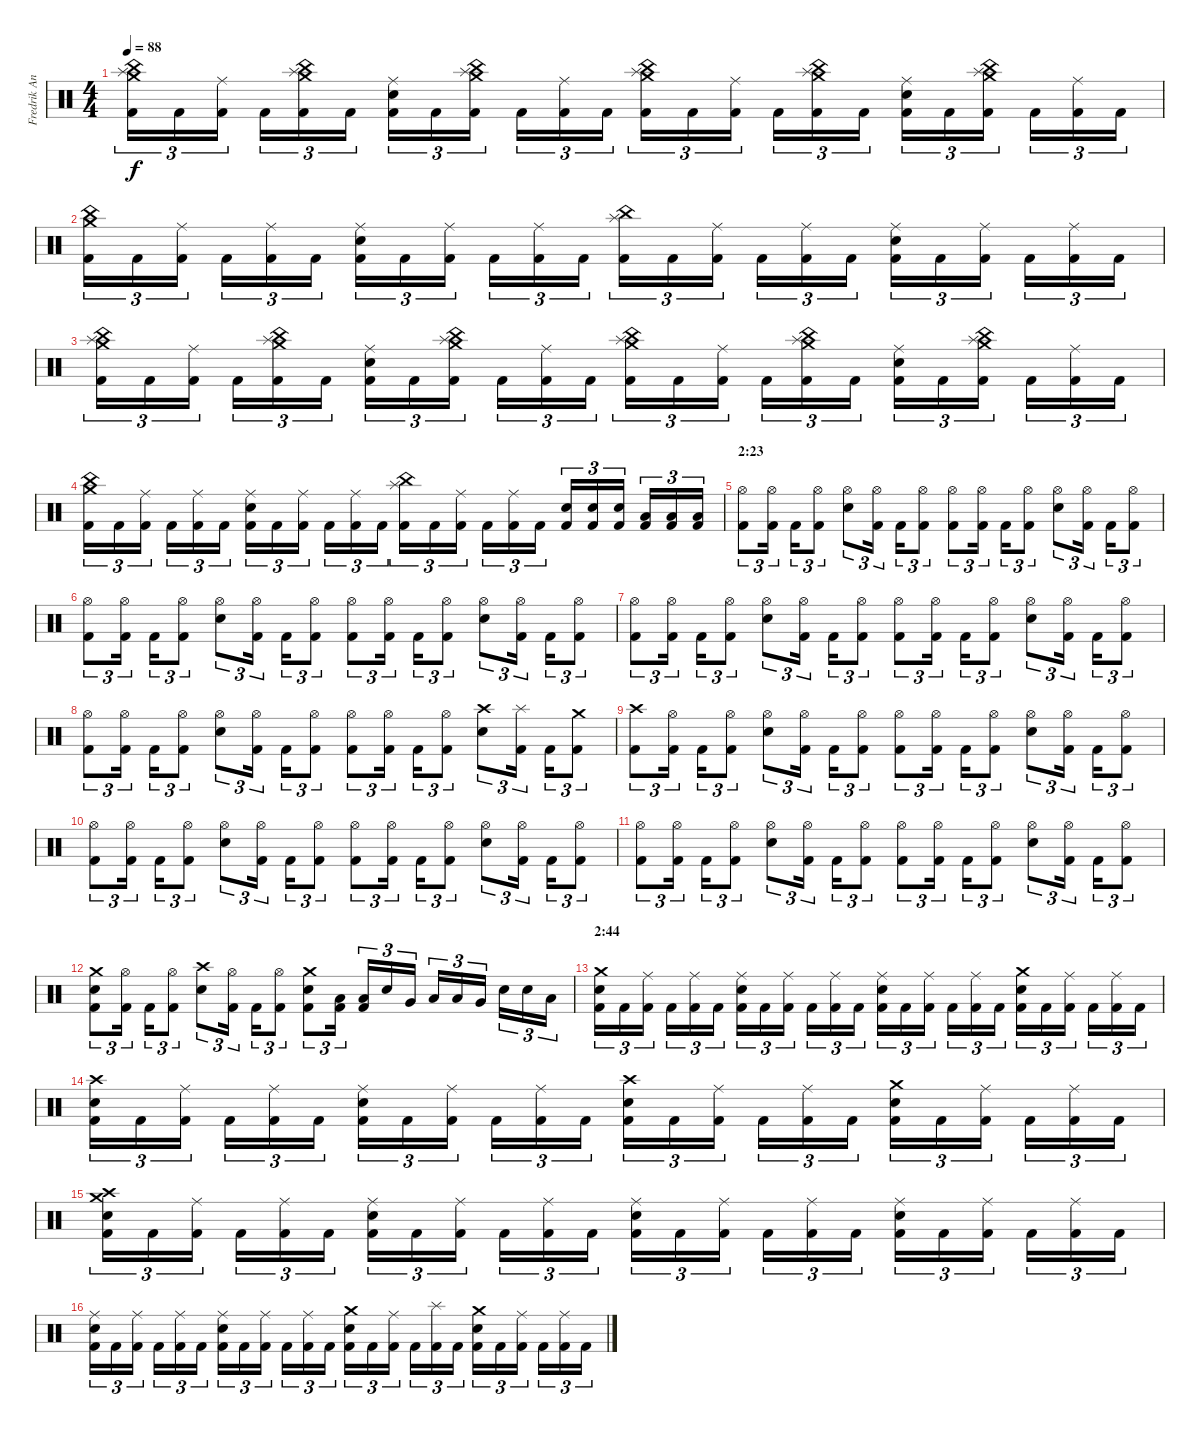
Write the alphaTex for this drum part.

\track ("Fredrik Andersson" "Fredrik An") {instrument percussion}
\staff {score}
\articulation defaults
\ts (4 4)
\tempo 88
\clef neutral
\ks c
("China (hit)" "Splash (hit)" "Crash medium (hit)" "Kick (hit) 2").16{tu (3 2) dy f} "Kick (hit) 2".16{tu (3 2)} ("Ride (middle)" "Kick (hit) 2").16{tu (3 2)} "Kick (hit) 2".16{tu (3 2)} ("China (hit)" "Splash (hit)" "Crash medium (hit)" "Kick (hit) 2").16{tu (3 2)} "Kick (hit) 2".16{tu (3 2)} ("Ride (middle)" "Electric Snare (hit)" "Kick (hit) 2").16{tu (3 2)} "Kick (hit) 2".16{tu (3 2)} ("China (hit)" "Splash (hit)" "Crash medium (hit)" "Kick (hit) 2").16{tu (3 2)} "Kick (hit) 2".16{tu (3 2)} ("Ride (middle)" "Kick (hit) 2").16{tu (3 2)} "Kick (hit) 2".16{tu (3 2)} ("China (hit)" "Splash (hit)" "Crash medium (hit)" "Kick (hit) 2").16{tu (3 2)} "Kick (hit) 2".16{tu (3 2)} ("Ride (middle)" "Kick (hit) 2").16{tu (3 2)} "Kick (hit) 2".16{tu (3 2)} ("China (hit)" "Splash (hit)" "Crash medium (hit)" "Kick (hit) 2").16{tu (3 2)} "Kick (hit) 2".16{tu (3 2)} ("Ride (middle)" "Electric Snare (hit)" "Kick (hit) 2").16{tu (3 2)} "Kick (hit) 2".16{tu (3 2)} ("China (hit)" "Splash (hit)" "Crash medium (hit)" "Kick (hit) 2").16{tu (3 2)} "Kick (hit) 2".16{tu (3 2)} ("Ride (middle)" "Kick (hit) 2").16{tu (3 2)} "Kick (hit) 2".16{tu (3 2)} |
("China (hit)" "Crash medium (hit)" "Kick (hit) 2").16{tu (3 2)} "Kick (hit) 2".16{tu (3 2)} ("Ride (middle)" "Kick (hit) 2").16{tu (3 2)} "Kick (hit) 2".16{tu (3 2)} ("Ride (middle)" "Kick (hit) 2").16{tu (3 2)} "Kick (hit) 2".16{tu (3 2)} ("Ride (middle)" "Electric Snare (hit)" "Kick (hit) 2").16{tu (3 2)} "Kick (hit) 2".16{tu (3 2)} ("Ride (middle)" "Kick (hit) 2").16{tu (3 2)} "Kick (hit) 2".16{tu (3 2)} ("Ride (middle)" "Kick (hit) 2").16{tu (3 2)} "Kick (hit) 2".16{tu (3 2)} ("China (hit)" "Splash (hit)" "Kick (hit) 2").16{tu (3 2)} "Kick (hit) 2".16{tu (3 2)} ("Ride (middle)" "Kick (hit) 2").16{tu (3 2)} "Kick (hit) 2".16{tu (3 2)} ("Ride (middle)" "Kick (hit) 2").16{tu (3 2)} "Kick (hit) 2".16{tu (3 2)} ("Ride (middle)" "Electric Snare (hit)" "Kick (hit) 2").16{tu (3 2)} "Kick (hit) 2".16{tu (3 2)} ("Ride (middle)" "Kick (hit) 2").16{tu (3 2)} "Kick (hit) 2".16{tu (3 2)} ("Ride (middle)" "Kick (hit) 2").16{tu (3 2)} "Kick (hit) 2".16{tu (3 2)} |
("China (hit)" "Splash (hit)" "Crash medium (hit)" "Kick (hit) 2").16{tu (3 2)} "Kick (hit) 2".16{tu (3 2)} ("Ride (middle)" "Kick (hit) 2").16{tu (3 2)} "Kick (hit) 2".16{tu (3 2)} ("China (hit)" "Splash (hit)" "Crash medium (hit)" "Kick (hit) 2").16{tu (3 2)} "Kick (hit) 2".16{tu (3 2)} ("Ride (middle)" "Electric Snare (hit)" "Kick (hit) 2").16{tu (3 2)} "Kick (hit) 2".16{tu (3 2)} ("China (hit)" "Splash (hit)" "Crash medium (hit)" "Kick (hit) 2").16{tu (3 2)} "Kick (hit) 2".16{tu (3 2)} ("Ride (middle)" "Kick (hit) 2").16{tu (3 2)} "Kick (hit) 2".16{tu (3 2)} ("China (hit)" "Splash (hit)" "Crash medium (hit)" "Kick (hit) 2").16{tu (3 2)} "Kick (hit) 2".16{tu (3 2)} ("Ride (middle)" "Kick (hit) 2").16{tu (3 2)} "Kick (hit) 2".16{tu (3 2)} ("China (hit)" "Splash (hit)" "Crash medium (hit)" "Kick (hit) 2").16{tu (3 2)} "Kick (hit) 2".16{tu (3 2)} ("Ride (middle)" "Electric Snare (hit)" "Kick (hit) 2").16{tu (3 2)} "Kick (hit) 2".16{tu (3 2)} ("China (hit)" "Splash (hit)" "Crash medium (hit)" "Kick (hit) 2").16{tu (3 2)} "Kick (hit) 2".16{tu (3 2)} ("Ride (middle)" "Kick (hit) 2").16{tu (3 2)} "Kick (hit) 2".16{tu (3 2)} |
("China (hit)" "Crash medium (hit)" "Kick (hit) 2").16{tu (3 2)} "Kick (hit) 2".16{tu (3 2)} ("Ride (middle)" "Kick (hit) 2").16{tu (3 2)} "Kick (hit) 2".16{tu (3 2)} ("Ride (middle)" "Kick (hit) 2").16{tu (3 2)} "Kick (hit) 2".16{tu (3 2)} ("Ride (middle)" "Electric Snare (hit)" "Kick (hit) 2").16{tu (3 2)} "Kick (hit) 2".16{tu (3 2)} ("Ride (middle)" "Kick (hit) 2").16{tu (3 2)} "Kick (hit) 2".16{tu (3 2)} ("Ride (middle)" "Kick (hit) 2").16{tu (3 2)} "Kick (hit) 2".16{tu (3 2)} ("China (hit)" "Splash (hit)" "Kick (hit) 2").16{tu (3 2)} "Kick (hit) 2".16{tu (3 2)} ("Ride (middle)" "Kick (hit) 2").16{tu (3 2)} "Kick (hit) 2".16{tu (3 2)} ("Ride (middle)" "Kick (hit) 2").16{tu (3 2)} "Kick (hit) 2".16{tu (3 2)} ("Electric Snare (hit)" "Kick (hit) 2").16{tu (3 2)} ("Electric Snare (hit)" "Kick (hit) 2").16{tu (3 2)} ("Electric Snare (hit)" "Kick (hit) 2").16{tu (3 2)} ("Low Tom (hit)" "Kick (hit) 2").16{tu (3 2)} ("Low Tom (hit)" "Kick (hit) 2").16{tu (3 2)} ("Low Tom (hit)" "Kick (hit) 2").16{tu (3 2)} |
\section ("" "2:23")
("Hi-Hat (open)" "Kick (hit) 2").8{tu (3 2)} ("Hi-Hat (open)" "Kick (hit) 2").16{tu (3 2)} "Kick (hit) 2".16{tu (3 2)} ("Hi-Hat (open)" "Kick (hit) 2").8{tu (3 2)} ("Hi-Hat (open)" "Electric Snare (hit)").8{tu (3 2)} ("Hi-Hat (open)" "Kick (hit) 2").16{tu (3 2)} "Kick (hit) 2".16{tu (3 2)} ("Hi-Hat (open)" "Kick (hit) 2").8{tu (3 2)} ("Hi-Hat (open)" "Kick (hit) 2").8{tu (3 2)} ("Hi-Hat (open)" "Kick (hit) 2").16{tu (3 2)} "Kick (hit) 2".16{tu (3 2)} ("Hi-Hat (open)" "Kick (hit) 2").8{tu (3 2)} ("Hi-Hat (open)" "Electric Snare (hit)").8{tu (3 2)} ("Hi-Hat (open)" "Kick (hit) 2").16{tu (3 2)} "Kick (hit) 2".16{tu (3 2)} ("Hi-Hat (open)" "Kick (hit) 2").8{tu (3 2)} |
("Hi-Hat (open)" "Kick (hit) 2").8{tu (3 2)} ("Hi-Hat (open)" "Kick (hit) 2").16{tu (3 2)} "Kick (hit) 2".16{tu (3 2)} ("Hi-Hat (open)" "Kick (hit) 2").8{tu (3 2)} ("Hi-Hat (open)" "Electric Snare (hit)").8{tu (3 2)} ("Hi-Hat (open)" "Kick (hit) 2").16{tu (3 2)} "Kick (hit) 2".16{tu (3 2)} ("Hi-Hat (open)" "Kick (hit) 2").8{tu (3 2)} ("Hi-Hat (open)" "Kick (hit) 2").8{tu (3 2)} ("Hi-Hat (open)" "Kick (hit) 2").16{tu (3 2)} "Kick (hit) 2".16{tu (3 2)} ("Hi-Hat (open)" "Kick (hit) 2").8{tu (3 2)} ("Hi-Hat (open)" "Electric Snare (hit)").8{tu (3 2)} ("Hi-Hat (open)" "Kick (hit) 2").16{tu (3 2)} "Kick (hit) 2".16{tu (3 2)} ("Hi-Hat (open)" "Kick (hit) 2").8{tu (3 2)} |
("Hi-Hat (open)" "Kick (hit) 2").8{tu (3 2)} ("Hi-Hat (open)" "Kick (hit) 2").16{tu (3 2)} "Kick (hit) 2".16{tu (3 2)} ("Hi-Hat (open)" "Kick (hit) 2").8{tu (3 2)} ("Hi-Hat (open)" "Electric Snare (hit)").8{tu (3 2)} ("Hi-Hat (open)" "Kick (hit) 2").16{tu (3 2)} "Kick (hit) 2".16{tu (3 2)} ("Hi-Hat (open)" "Kick (hit) 2").8{tu (3 2)} ("Hi-Hat (open)" "Kick (hit) 2").8{tu (3 2)} ("Hi-Hat (open)" "Kick (hit) 2").16{tu (3 2)} "Kick (hit) 2".16{tu (3 2)} ("Hi-Hat (open)" "Kick (hit) 2").8{tu (3 2)} ("Hi-Hat (open)" "Electric Snare (hit)").8{tu (3 2)} ("Hi-Hat (open)" "Kick (hit) 2").16{tu (3 2)} "Kick (hit) 2".16{tu (3 2)} ("Hi-Hat (open)" "Kick (hit) 2").8{tu (3 2)} |
("Hi-Hat (open)" "Kick (hit) 2").8{tu (3 2)} ("Hi-Hat (open)" "Kick (hit) 2").16{tu (3 2)} "Kick (hit) 2".16{tu (3 2)} ("Hi-Hat (open)" "Kick (hit) 2").8{tu (3 2)} ("Hi-Hat (open)" "Electric Snare (hit)").8{tu (3 2)} ("Hi-Hat (open)" "Kick (hit) 2").16{tu (3 2)} "Kick (hit) 2".16{tu (3 2)} ("Hi-Hat (open)" "Kick (hit) 2").8{tu (3 2)} ("Hi-Hat (open)" "Kick (hit) 2").8{tu (3 2)} ("Hi-Hat (open)" "Kick (hit) 2").16{tu (3 2)} "Kick (hit) 2".16{tu (3 2)} ("Hi-Hat (open)" "Kick (hit) 2").8{tu (3 2)} ("Crash high (hit)" "Electric Snare (hit)").8{tu (3 2)} ("Splash (hit)" "Kick (hit) 2").16{tu (3 2)} "Kick (hit) 2".16{tu (3 2)} ("Crash medium (hit)" "Kick (hit) 2").8{tu (3 2)} |
("Crash high (hit)" "Kick (hit) 2").8{tu (3 2)} ("Hi-Hat (open)" "Kick (hit) 2").16{tu (3 2)} "Kick (hit) 2".16{tu (3 2)} ("Hi-Hat (open)" "Kick (hit) 2").8{tu (3 2)} ("Hi-Hat (open)" "Electric Snare (hit)").8{tu (3 2)} ("Hi-Hat (open)" "Kick (hit) 2").16{tu (3 2)} "Kick (hit) 2".16{tu (3 2)} ("Hi-Hat (open)" "Kick (hit) 2").8{tu (3 2)} ("Hi-Hat (open)" "Kick (hit) 2").8{tu (3 2)} ("Hi-Hat (open)" "Kick (hit) 2").16{tu (3 2)} "Kick (hit) 2".16{tu (3 2)} ("Hi-Hat (open)" "Kick (hit) 2").8{tu (3 2)} ("Hi-Hat (open)" "Electric Snare (hit)").8{tu (3 2)} ("Hi-Hat (open)" "Kick (hit) 2").16{tu (3 2)} "Kick (hit) 2".16{tu (3 2)} ("Hi-Hat (open)" "Kick (hit) 2").8{tu (3 2)} |
("Hi-Hat (open)" "Kick (hit) 2").8{tu (3 2)} ("Hi-Hat (open)" "Kick (hit) 2").16{tu (3 2)} "Kick (hit) 2".16{tu (3 2)} ("Hi-Hat (open)" "Kick (hit) 2").8{tu (3 2)} ("Hi-Hat (open)" "Electric Snare (hit)").8{tu (3 2)} ("Hi-Hat (open)" "Kick (hit) 2").16{tu (3 2)} "Kick (hit) 2".16{tu (3 2)} ("Hi-Hat (open)" "Kick (hit) 2").8{tu (3 2)} ("Hi-Hat (open)" "Kick (hit) 2").8{tu (3 2)} ("Hi-Hat (open)" "Kick (hit) 2").16{tu (3 2)} "Kick (hit) 2".16{tu (3 2)} ("Hi-Hat (open)" "Kick (hit) 2").8{tu (3 2)} ("Hi-Hat (open)" "Electric Snare (hit)").8{tu (3 2)} ("Hi-Hat (open)" "Kick (hit) 2").16{tu (3 2)} "Kick (hit) 2".16{tu (3 2)} ("Hi-Hat (open)" "Kick (hit) 2").8{tu (3 2)} |
("Hi-Hat (open)" "Kick (hit) 2").8{tu (3 2)} ("Hi-Hat (open)" "Kick (hit) 2").16{tu (3 2)} "Kick (hit) 2".16{tu (3 2)} ("Hi-Hat (open)" "Kick (hit) 2").8{tu (3 2)} ("Hi-Hat (open)" "Electric Snare (hit)").8{tu (3 2)} ("Hi-Hat (open)" "Kick (hit) 2").16{tu (3 2)} "Kick (hit) 2".16{tu (3 2)} ("Hi-Hat (open)" "Kick (hit) 2").8{tu (3 2)} ("Hi-Hat (open)" "Kick (hit) 2").8{tu (3 2)} ("Hi-Hat (open)" "Kick (hit) 2").16{tu (3 2)} "Kick (hit) 2".16{tu (3 2)} ("Hi-Hat (open)" "Kick (hit) 2").8{tu (3 2)} ("Hi-Hat (open)" "Electric Snare (hit)").8{tu (3 2)} ("Hi-Hat (open)" "Kick (hit) 2").16{tu (3 2)} "Kick (hit) 2".16{tu (3 2)} ("Hi-Hat (open)" "Kick (hit) 2").8{tu (3 2)} |
("Crash medium (hit)" "Electric Snare (hit)" "Kick (hit) 2").8{tu (3 2)} ("Hi-Hat (open)" "Kick (hit) 2").16{tu (3 2)} "Kick (hit) 2".16{tu (3 2)} ("Hi-Hat (open)" "Kick (hit) 2").8{tu (3 2)} ("Crash high (hit)" "Electric Snare (hit)").8{tu (3 2)} ("Hi-Hat (open)" "Kick (hit) 2").16{tu (3 2)} "Kick (hit) 2".16{tu (3 2)} ("Hi-Hat (open)" "Kick (hit) 2").8{tu (3 2)} ("Crash medium (hit)" "Electric Snare (hit)" "Kick (hit) 2").8{tu (3 2)} ("Low Floor Tom (hit)" "Kick (hit) 2").16{tu (3 2)} ("Low Floor Tom (hit)" "Kick (hit) 2").16{tu (3 2)} "Electric Snare (hit)".16{tu (3 2)} "Very Low Tom (hit)".16{tu (3 2)} "Low Tom (hit)".16{tu (3 2)} "Low Tom (hit)".16{tu (3 2)} "Very Low Tom (hit)".16{tu (3 2)} "Electric Snare (hit)".16{tu (3 2)} "Electric Snare (hit)".16{tu (3 2)} "Low Floor Tom (hit)".16{tu (3 2)} |
\section ("" "2:44")
("Crash medium (hit)" "Electric Snare (hit)" "Kick (hit) 2").16{tu (3 2)} "Kick (hit) 2".16{tu (3 2)} ("Ride (middle)" "Kick (hit) 2").16{tu (3 2)} "Kick (hit) 2".16{tu (3 2)} ("Ride (middle)" "Kick (hit) 2").16{tu (3 2)} "Kick (hit) 2".16{tu (3 2)} ("Ride (middle)" "Electric Snare (hit)" "Kick (hit) 2").16{tu (3 2)} "Kick (hit) 2".16{tu (3 2)} ("Ride (middle)" "Kick (hit) 2").16{tu (3 2)} "Kick (hit) 2".16{tu (3 2)} ("Ride (middle)" "Kick (hit) 2").16{tu (3 2)} "Kick (hit) 2".16{tu (3 2)} ("Ride (middle)" "Electric Snare (hit)" "Kick (hit) 2").16{tu (3 2)} "Kick (hit) 2".16{tu (3 2)} ("Ride (middle)" "Kick (hit) 2").16{tu (3 2)} "Kick (hit) 2".16{tu (3 2)} ("Ride (middle)" "Kick (hit) 2").16{tu (3 2)} "Kick (hit) 2".16{tu (3 2)} ("Crash medium (hit)" "Electric Snare (hit)" "Kick (hit) 2").16{tu (3 2)} "Kick (hit) 2".16{tu (3 2)} ("Ride (middle)" "Kick (hit) 2").16{tu (3 2)} "Kick (hit) 2".16{tu (3 2)} ("Ride (middle)" "Kick (hit) 2").16{tu (3 2)} "Kick (hit) 2".16{tu (3 2)} |
("Crash high (hit)" "Electric Snare (hit)" "Kick (hit) 2").16{tu (3 2)} "Kick (hit) 2".16{tu (3 2)} ("Ride (middle)" "Kick (hit) 2").16{tu (3 2)} "Kick (hit) 2".16{tu (3 2)} ("Ride (middle)" "Kick (hit) 2").16{tu (3 2)} "Kick (hit) 2".16{tu (3 2)} ("Ride (middle)" "Electric Snare (hit)" "Kick (hit) 2").16{tu (3 2)} "Kick (hit) 2".16{tu (3 2)} ("Ride (middle)" "Kick (hit) 2").16{tu (3 2)} "Kick (hit) 2".16{tu (3 2)} ("Ride (middle)" "Kick (hit) 2").16{tu (3 2)} "Kick (hit) 2".16{tu (3 2)} ("Crash high (hit)" "Electric Snare (hit)" "Kick (hit) 2").16{tu (3 2)} "Kick (hit) 2".16{tu (3 2)} ("Ride (middle)" "Kick (hit) 2").16{tu (3 2)} "Kick (hit) 2".16{tu (3 2)} ("Ride (middle)" "Kick (hit) 2").16{tu (3 2)} "Kick (hit) 2".16{tu (3 2)} ("Crash medium (hit)" "Electric Snare (hit)" "Kick (hit) 2").16{tu (3 2)} "Kick (hit) 2".16{tu (3 2)} ("Ride (middle)" "Kick (hit) 2").16{tu (3 2)} "Kick (hit) 2".16{tu (3 2)} ("Ride (middle)" "Kick (hit) 2").16{tu (3 2)} "Kick (hit) 2".16{tu (3 2)} |
("Crash medium (hit)" "Crash high (hit)" "Electric Snare (hit)" "Kick (hit) 2").16{tu (3 2)} "Kick (hit) 2".16{tu (3 2)} ("Ride (middle)" "Kick (hit) 2").16{tu (3 2)} "Kick (hit) 2".16{tu (3 2)} ("Ride (middle)" "Kick (hit) 2").16{tu (3 2)} "Kick (hit) 2".16{tu (3 2)} ("Ride (middle)" "Electric Snare (hit)" "Kick (hit) 2").16{tu (3 2)} "Kick (hit) 2".16{tu (3 2)} ("Ride (middle)" "Kick (hit) 2").16{tu (3 2)} "Kick (hit) 2".16{tu (3 2)} ("Ride (middle)" "Kick (hit) 2").16{tu (3 2)} "Kick (hit) 2".16{tu (3 2)} ("Ride (middle)" "Electric Snare (hit)" "Kick (hit) 2").16{tu (3 2)} "Kick (hit) 2".16{tu (3 2)} ("Ride (middle)" "Kick (hit) 2").16{tu (3 2)} "Kick (hit) 2".16{tu (3 2)} ("Ride (middle)" "Kick (hit) 2").16{tu (3 2)} "Kick (hit) 2".16{tu (3 2)} ("Ride (middle)" "Electric Snare (hit)" "Kick (hit) 2").16{tu (3 2)} "Kick (hit) 2".16{tu (3 2)} ("Ride (middle)" "Kick (hit) 2").16{tu (3 2)} "Kick (hit) 2".16{tu (3 2)} ("Ride (middle)" "Kick (hit) 2").16{tu (3 2)} "Kick (hit) 2".16{tu (3 2)} |
("Ride (middle)" "Electric Snare (hit)" "Kick (hit) 2").16{tu (3 2)} "Kick (hit) 2".16{tu (3 2)} ("Ride (middle)" "Kick (hit) 2").16{tu (3 2)} "Kick (hit) 2".16{tu (3 2)} ("Ride (middle)" "Kick (hit) 2").16{tu (3 2)} "Kick (hit) 2".16{tu (3 2)} ("Ride (middle)" "Electric Snare (hit)" "Kick (hit) 2").16{tu (3 2)} "Kick (hit) 2".16{tu (3 2)} ("Ride (middle)" "Kick (hit) 2").16{tu (3 2)} "Kick (hit) 2".16{tu (3 2)} ("Ride (middle)" "Kick (hit) 2").16{tu (3 2)} "Kick (hit) 2".16{tu (3 2)} ("Crash medium (hit)" "Electric Snare (hit)" "Kick (hit) 2").16{tu (3 2)} "Kick (hit) 2".16{tu (3 2)} ("Ride (middle)" "Kick (hit) 2").16{tu (3 2)} "Kick (hit) 2".16{tu (3 2)} ("Splash (hit)" "Kick (hit) 2").16{tu (3 2)} "Kick (hit) 2".16{tu (3 2)} ("Crash medium (hit)" "Electric Snare (hit)" "Kick (hit) 2").16{tu (3 2)} "Kick (hit) 2".16{tu (3 2)} ("Ride (middle)" "Kick (hit) 2").16{tu (3 2)} "Kick (hit) 2".16{tu (3 2)} ("Ride (middle)" "Kick (hit) 2").16{tu (3 2)} "Kick (hit) 2".16{tu (3 2)}
